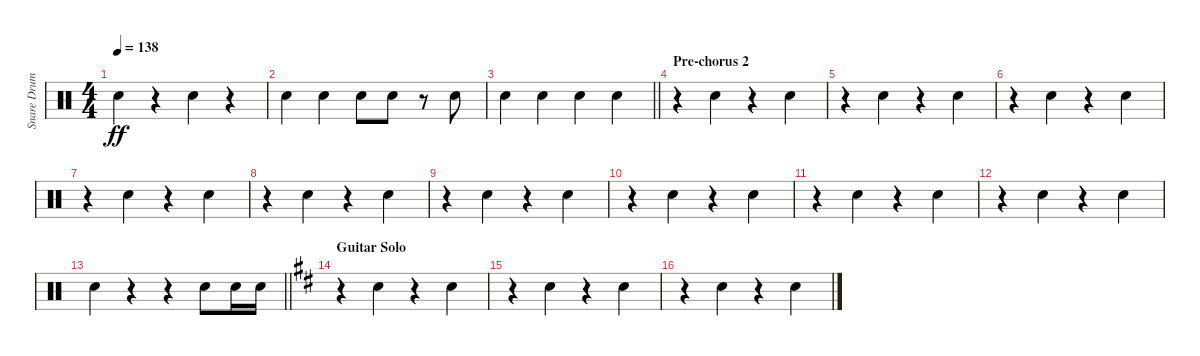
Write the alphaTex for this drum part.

\track ("Snare Drum" "Snare Drum") {instrument percussion}
\staff {score}
\articulation defaults
\ts (4 4)
\tempo 138
\clef neutral
\ks c "Electric Snare (hit)".4{dy ff}
r.4 "Electric Snare (hit)".4 r.4 |
"Electric Snare (hit)".4 "Electric Snare (hit)".4 "Electric Snare (hit)".8 "Electric Snare (hit)".8 r.8 "Electric Snare (hit)".8 |
\barLineRight lightlight "Electric Snare (hit)".4 "Electric Snare (hit)".4 "Electric Snare (hit)".4 "Electric Snare (hit)".4
|
\section ("" "Pre-chorus 2")
r.4 "Electric Snare (hit)".4 r.4 "Electric Snare (hit)".4 |
r.4 "Electric Snare (hit)".4 r.4 "Electric Snare (hit)".4 |
r.4 "Electric Snare (hit)".4 r.4 "Electric Snare (hit)".4 |
r.4 "Electric Snare (hit)".4 r.4 "Electric Snare (hit)".4 |
r.4 "Electric Snare (hit)".4 r.4 "Electric Snare (hit)".4 |
r.4 "Electric Snare (hit)".4 r.4 "Electric Snare (hit)".4 |
r.4 "Electric Snare (hit)".4 r.4 "Electric Snare (hit)".4 |
r.4 "Electric Snare (hit)".4 r.4 "Electric Snare (hit)".4 |
r.4 "Electric Snare (hit)".4 r.4 "Electric Snare (hit)".4 |
\barLineRight lightlight "Electric Snare (hit)".4
r.4 r.4 "Electric Snare (hit)".8 "Electric Snare (hit)".16 "Electric Snare (hit)".16 |
\section ("" "Guitar Solo")
\ks d
r.4 "Electric Snare (hit)".4 r.4 "Electric Snare (hit)".4 |
r.4 "Electric Snare (hit)".4 r.4 "Electric Snare (hit)".4 |
r.4 "Electric Snare (hit)".4 r.4 "Electric Snare (hit)".4
